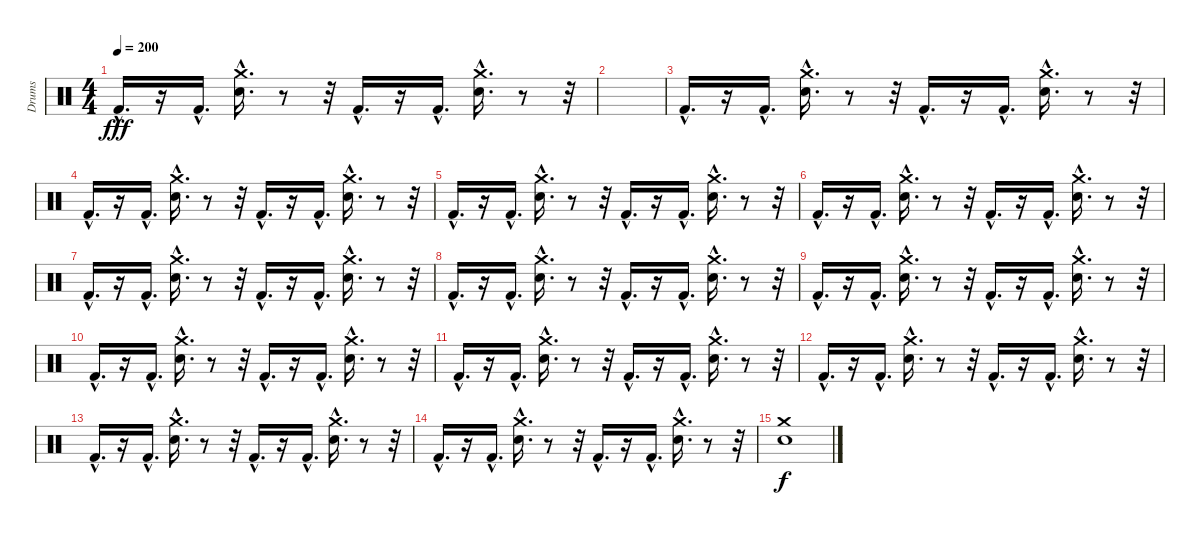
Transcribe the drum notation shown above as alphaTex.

\track ("Drums" "Drums") {instrument percussion}
\staff {score}
\articulation defaults
\ts (4 4)
\tempo 200
\clef neutral
\ks c "Kick (hit) 2"{hac}.16{d dy fff}
r.16 "Kick (hit) 2"{hac}.16{d} ("Crash medium (hit)"{hac} "Electric Snare (hit)"{hac}).16{d} r.8 r.32 "Kick (hit) 2"{hac}.16{d} r.16 "Kick (hit) 2"{hac}.16{d} ("Crash medium (hit)"{hac} "Electric Snare (hit)"{hac}).16{d} r.8 r.32 |
|
"Kick (hit) 2"{hac}.16{d} r.16 "Kick (hit) 2"{hac}.16{d} ("Crash medium (hit)"{hac} "Electric Snare (hit)"{hac}).16{d} r.8 r.32 "Kick (hit) 2"{hac}.16{d} r.16 "Kick (hit) 2"{hac}.16{d} ("Crash medium (hit)"{hac} "Electric Snare (hit)"{hac}).16{d} r.8 r.32 |
"Kick (hit) 2"{hac}.16{d} r.16 "Kick (hit) 2"{hac}.16{d} ("Crash medium (hit)"{hac} "Electric Snare (hit)"{hac}).16{d} r.8 r.32 "Kick (hit) 2"{hac}.16{d} r.16 "Kick (hit) 2"{hac}.16{d} ("Crash medium (hit)"{hac} "Electric Snare (hit)"{hac}).16{d} r.8 r.32 |
"Kick (hit) 2"{hac}.16{d} r.16 "Kick (hit) 2"{hac}.16{d} ("Crash medium (hit)"{hac} "Electric Snare (hit)"{hac}).16{d} r.8 r.32 "Kick (hit) 2"{hac}.16{d} r.16 "Kick (hit) 2"{hac}.16{d} ("Crash medium (hit)"{hac} "Electric Snare (hit)"{hac}).16{d} r.8 r.32 |
"Kick (hit) 2"{hac}.16{d} r.16 "Kick (hit) 2"{hac}.16{d} ("Crash medium (hit)"{hac} "Electric Snare (hit)"{hac}).16{d} r.8 r.32 "Kick (hit) 2"{hac}.16{d} r.16 "Kick (hit) 2"{hac}.16{d} ("Crash medium (hit)"{hac} "Electric Snare (hit)"{hac}).16{d} r.8 r.32 |
"Kick (hit) 2"{hac}.16{d} r.16 "Kick (hit) 2"{hac}.16{d} ("Crash medium (hit)"{hac} "Electric Snare (hit)"{hac}).16{d} r.8 r.32 "Kick (hit) 2"{hac}.16{d} r.16 "Kick (hit) 2"{hac}.16{d} ("Crash medium (hit)"{hac} "Electric Snare (hit)"{hac}).16{d} r.8 r.32 |
"Kick (hit) 2"{hac}.16{d} r.16 "Kick (hit) 2"{hac}.16{d} ("Crash medium (hit)"{hac} "Electric Snare (hit)"{hac}).16{d} r.8 r.32 "Kick (hit) 2"{hac}.16{d} r.16 "Kick (hit) 2"{hac}.16{d} ("Crash medium (hit)"{hac} "Electric Snare (hit)"{hac}).16{d} r.8 r.32 |
"Kick (hit) 2"{hac}.16{d} r.16 "Kick (hit) 2"{hac}.16{d} ("Crash medium (hit)"{hac} "Electric Snare (hit)"{hac}).16{d} r.8 r.32 "Kick (hit) 2"{hac}.16{d} r.16 "Kick (hit) 2"{hac}.16{d} ("Crash medium (hit)"{hac} "Electric Snare (hit)"{hac}).16{d} r.8 r.32 |
"Kick (hit) 2"{hac}.16{d} r.16 "Kick (hit) 2"{hac}.16{d} ("Crash medium (hit)"{hac} "Electric Snare (hit)"{hac}).16{d} r.8 r.32 "Kick (hit) 2"{hac}.16{d} r.16 "Kick (hit) 2"{hac}.16{d} ("Crash medium (hit)"{hac} "Electric Snare (hit)"{hac}).16{d} r.8 r.32 |
"Kick (hit) 2"{hac}.16{d} r.16 "Kick (hit) 2"{hac}.16{d} ("Crash medium (hit)"{hac} "Electric Snare (hit)"{hac}).16{d} r.8 r.32 "Kick (hit) 2"{hac}.16{d} r.16 "Kick (hit) 2"{hac}.16{d} ("Crash medium (hit)"{hac} "Electric Snare (hit)"{hac}).16{d} r.8 r.32 |
"Kick (hit) 2"{hac}.16{d} r.16 "Kick (hit) 2"{hac}.16{d} ("Crash medium (hit)"{hac} "Electric Snare (hit)"{hac}).16{d} r.8 r.32 "Kick (hit) 2"{hac}.16{d} r.16 "Kick (hit) 2"{hac}.16{d} ("Crash medium (hit)"{hac} "Electric Snare (hit)"{hac}).16{d} r.8 r.32 |
"Kick (hit) 2"{hac}.16{d} r.16 "Kick (hit) 2"{hac}.16{d} ("Crash medium (hit)"{hac} "Electric Snare (hit)"{hac}).16{d} r.8 r.32 "Kick (hit) 2"{hac}.16{d} r.16 "Kick (hit) 2"{hac}.16{d} ("Crash medium (hit)"{hac} "Electric Snare (hit)"{hac}).16{d} r.8 r.32 |
"Kick (hit) 2"{hac}.16{d} r.16 "Kick (hit) 2"{hac}.16{d} ("Crash medium (hit)"{hac} "Electric Snare (hit)"{hac}).16{d} r.8 r.32 "Kick (hit) 2"{hac}.16{d} r.16 "Kick (hit) 2"{hac}.16{d} ("Crash medium (hit)"{hac} "Electric Snare (hit)"{hac}).16{d} r.8 r.32 |
("Crash medium (hit)" "Electric Snare (hit)").1{dy f}
